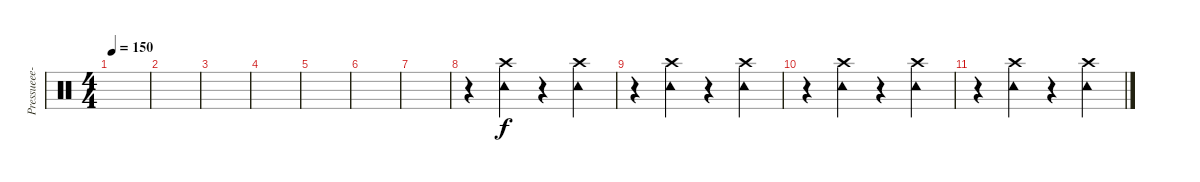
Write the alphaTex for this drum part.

\track ("" "Pressueee-") {instrument percussion}
\staff {score}
\articulation defaults
\ts (4 4)
\tempo 150
\clef neutral
\ks c
|
|
|
|
|
|
|
r.4 ("Crash high (hit)" "Tambourine (hit)").4 r.4 ("Crash high (hit)" "Tambourine (hit)").4 |
r.4 ("Crash high (hit)" "Tambourine (hit)").4 r.4 ("Crash high (hit)" "Tambourine (hit)").4 |
r.4 ("Crash high (hit)" "Tambourine (hit)").4 r.4 ("Crash high (hit)" "Tambourine (hit)").4 |
r.4 ("Crash high (hit)" "Tambourine (hit)").4 r.4 ("Crash high (hit)" "Tambourine (hit)").4
